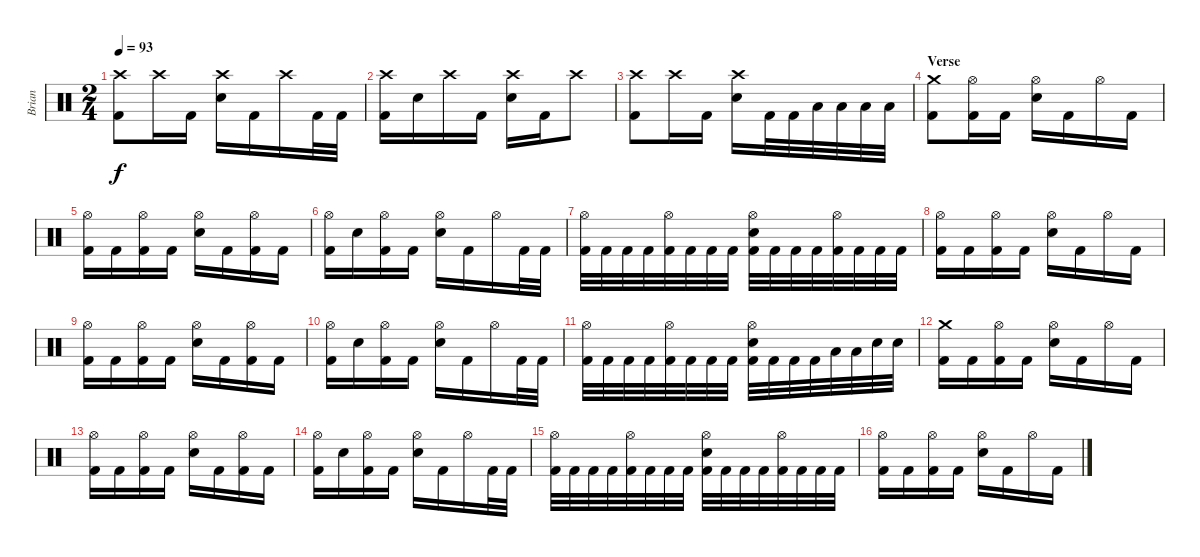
\track ("Brian" "Brian") {instrument percussion}
\staff {score}
\articulation defaults
\ts (2 4)
\tempo 93
\clef neutral
\ks c
("Crash high (hit)" "Kick (hit) 2").8{dy f} "Crash high (hit)".16 "Kick (hit) 2".16 ("Crash high (hit)" "Electric Snare (hit)").16 "Kick (hit) 2".16 "Crash high (hit)".16 "Kick (hit) 2".32 "Kick (hit) 2".32 |
("Crash high (hit)" "Kick (hit) 2").16 "Electric Snare (hit)".16 "Crash high (hit)".16 "Kick (hit) 2".16 ("Crash high (hit)" "Electric Snare (hit)").16 "Kick (hit) 2".16 "Crash high (hit)".8 |
("Crash high (hit)" "Kick (hit) 2").8 "Crash high (hit)".16 "Kick (hit) 2".16 ("Crash high (hit)" "Electric Snare (hit)").16 "Kick (hit) 2".32 "Kick (hit) 2".32 "Low Tom (hit)".32 "Low Tom (hit)".32 "Low Tom (hit)".32 "Low Tom (hit)".32 |
\section ("" "Verse")
("Crash medium (hit)" "Kick (hit) 2").8 ("Hi-Hat (open)" "Kick (hit) 2").16 "Kick (hit) 2".16 ("Hi-Hat (open)" "Electric Snare (hit)").16 "Kick (hit) 2".16 "Hi-Hat (open)".16 "Kick (hit) 2".16 |
("Hi-Hat (open)" "Kick (hit) 2").16 "Kick (hit) 2".16 ("Hi-Hat (open)" "Kick (hit) 2").16 "Kick (hit) 2".16 ("Hi-Hat (open)" "Electric Snare (hit)").16 "Kick (hit) 2".16 ("Hi-Hat (open)" "Kick (hit) 2").16 "Kick (hit) 2".16 |
("Hi-Hat (open)" "Kick (hit) 2").16 "Electric Snare (hit)".16 ("Hi-Hat (open)" "Kick (hit) 2").16 "Kick (hit) 2".16 ("Hi-Hat (open)" "Electric Snare (hit)").16 "Kick (hit) 2".16 "Hi-Hat (open)".16 "Kick (hit) 2".32 "Kick (hit) 2".32 |
("Hi-Hat (open)" "Kick (hit) 2").32 "Kick (hit) 2".32 "Kick (hit) 2".32 "Kick (hit) 2".32 ("Hi-Hat (open)" "Kick (hit) 2").32 "Kick (hit) 2".32 "Kick (hit) 2".32 "Kick (hit) 2".32 ("Hi-Hat (open)" "Electric Snare (hit)" "Kick (hit) 2").32 "Kick (hit) 2".32 "Kick (hit) 2".32 "Kick (hit) 2".32 ("Hi-Hat (open)" "Kick (hit) 2").32 "Kick (hit) 2".32 "Kick (hit) 2".32 "Kick (hit) 2".32 |
("Hi-Hat (open)" "Kick (hit) 2").16 "Kick (hit) 2".16 ("Hi-Hat (open)" "Kick (hit) 2").16 "Kick (hit) 2".16 ("Hi-Hat (open)" "Electric Snare (hit)").16 "Kick (hit) 2".16 "Hi-Hat (open)".16 "Kick (hit) 2".16 |
("Hi-Hat (open)" "Kick (hit) 2").16 "Kick (hit) 2".16 ("Hi-Hat (open)" "Kick (hit) 2").16 "Kick (hit) 2".16 ("Hi-Hat (open)" "Electric Snare (hit)").16 "Kick (hit) 2".16 ("Hi-Hat (open)" "Kick (hit) 2").16 "Kick (hit) 2".16 |
("Hi-Hat (open)" "Kick (hit) 2").16 "Electric Snare (hit)".16 ("Hi-Hat (open)" "Kick (hit) 2").16 "Kick (hit) 2".16 ("Hi-Hat (open)" "Electric Snare (hit)").16 "Kick (hit) 2".16 "Hi-Hat (open)".16 "Kick (hit) 2".32 "Kick (hit) 2".32 |
("Hi-Hat (open)" "Kick (hit) 2").32 "Kick (hit) 2".32 "Kick (hit) 2".32 "Kick (hit) 2".32 ("Hi-Hat (open)" "Kick (hit) 2").32 "Kick (hit) 2".32 "Kick (hit) 2".32 "Kick (hit) 2".32 ("Hi-Hat (open)" "Electric Snare (hit)" "Kick (hit) 2").32 "Kick (hit) 2".32 "Kick (hit) 2".32 "Kick (hit) 2".32 "Low Tom (hit)".32 "Low Tom (hit)".32 "Electric Snare (hit)".32 "Electric Snare (hit)".32 |
("Crash medium (hit)" "Kick (hit) 2").16 "Kick (hit) 2".16 ("Hi-Hat (open)" "Kick (hit) 2").16 "Kick (hit) 2".16 ("Hi-Hat (open)" "Electric Snare (hit)").16 "Kick (hit) 2".16 "Hi-Hat (open)".16 "Kick (hit) 2".16 |
("Hi-Hat (open)" "Kick (hit) 2").16 "Kick (hit) 2".16 ("Hi-Hat (open)" "Kick (hit) 2").16 "Kick (hit) 2".16 ("Hi-Hat (open)" "Electric Snare (hit)").16 "Kick (hit) 2".16 ("Hi-Hat (open)" "Kick (hit) 2").16 "Kick (hit) 2".16 |
("Hi-Hat (open)" "Kick (hit) 2").16 "Electric Snare (hit)".16 ("Hi-Hat (open)" "Kick (hit) 2").16 "Kick (hit) 2".16 ("Hi-Hat (open)" "Electric Snare (hit)").16 "Kick (hit) 2".16 "Hi-Hat (open)".16 "Kick (hit) 2".32 "Kick (hit) 2".32 |
("Hi-Hat (open)" "Kick (hit) 2").32 "Kick (hit) 2".32 "Kick (hit) 2".32 "Kick (hit) 2".32 ("Hi-Hat (open)" "Kick (hit) 2").32 "Kick (hit) 2".32 "Kick (hit) 2".32 "Kick (hit) 2".32 ("Hi-Hat (open)" "Electric Snare (hit)" "Kick (hit) 2").32 "Kick (hit) 2".32 "Kick (hit) 2".32 "Kick (hit) 2".32 ("Hi-Hat (open)" "Kick (hit) 2").32 "Kick (hit) 2".32 "Kick (hit) 2".32 "Kick (hit) 2".32 |
("Hi-Hat (open)" "Kick (hit) 2").16 "Kick (hit) 2".16 ("Hi-Hat (open)" "Kick (hit) 2").16 "Kick (hit) 2".16 ("Hi-Hat (open)" "Electric Snare (hit)").16 "Kick (hit) 2".16 "Hi-Hat (open)".16 "Kick (hit) 2".16
